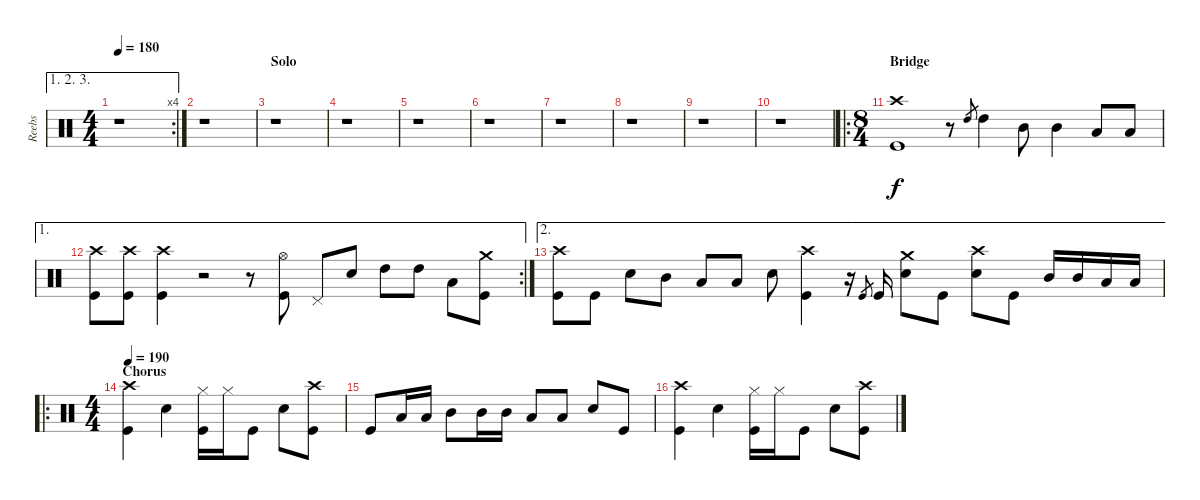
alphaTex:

\track ("Reebs" "Reebs") {instrument percussion}
\staff {score}
\articulation defaults
\ae (1 2 3)
\rc 4
\ts (4 4)
\tempo 180
\clef neutral
\ks c
r.1{dy f} |
r.1 |
\section ("" "Solo")
r.1 |
r.1 |
r.1 |
r.1 |
r.1 |
r.1 |
r.1 |
r.1 |
\ro
\ts (8 4)
\section ("" "Bridge")
("Crash high (hit)" "Kick (hit)").1{volume 16} r.8 "High Tom (hit)".8{gr} "High Tom (hit)".4 "Mid Tom (hit)".8 "Mid Tom (hit)".4 "Low Tom (hit)".8 "Low Tom (hit)".8 |
\ae 1
\rc 2
("Crash high (hit)" "Kick (hit)").8 ("Crash high (hit)" "Kick (hit)").8 ("Crash high (hit)" "Kick (hit)").4 r.2 r.8 ("Hi-Hat (open)" "Kick (hit)").8 "Pedal Hi-Hat (hit)".8 "Electric Snare (hit)".8 "High Tom (hit)".8 "High Tom (hit)".8 "Low Tom (hit)".8 ("Crash medium (hit)" "Kick (hit)").8 |
\ae 2
("Crash high (hit)" "Kick (hit)").8 "Kick (hit)".8 "Electric Snare (hit)".8 "Mid Tom (hit)".8 "Low Tom (hit)".8 "Low Tom (hit)".8 "Electric Snare (hit)".8 ("Crash high (hit)" "Kick (hit)").4 r.16 "Kick (hit)".8{gr} "Kick (hit)".16 ("Crash medium (hit)" "Electric Snare (hit)").8 "Kick (hit)".8 ("Crash high (hit)" "Electric Snare (hit)").8 "Kick (hit)".8 "Mid Tom (hit)".16 "Mid Tom (hit)".16 "Low Tom (hit)".16 "Low Tom (hit)".16 |
\ro
\ts (4 4)
\section ("" "Chorus")
\tempo 190
("Crash high (hit)" "Kick (hit)").4 "Electric Snare (hit)".4 ("Hi-Hat (closed)" "Kick (hit)").16 "Hi-Hat (closed)".16 "Kick (hit)".8 "Electric Snare (hit)".8 ("Crash high (hit)" "Kick (hit)").8 |
"Kick (hit)".8 "Low Tom (hit)".16 "Low Tom (hit)".16 "Mid Tom (hit)".8 "Mid Tom (hit)".16 "Mid Tom (hit)".16 "Low Floor Tom (hit)".8 "Low Floor Tom (hit)".8 "Electric Snare (hit)".8 "Kick (hit)".8 |
("Crash high (hit)" "Kick (hit)").4 "Electric Snare (hit)".4 ("Hi-Hat (closed)" "Kick (hit)").16 "Hi-Hat (closed)".16 "Kick (hit)".8 "Electric Snare (hit)".8 ("Crash high (hit)" "Kick (hit)").8
